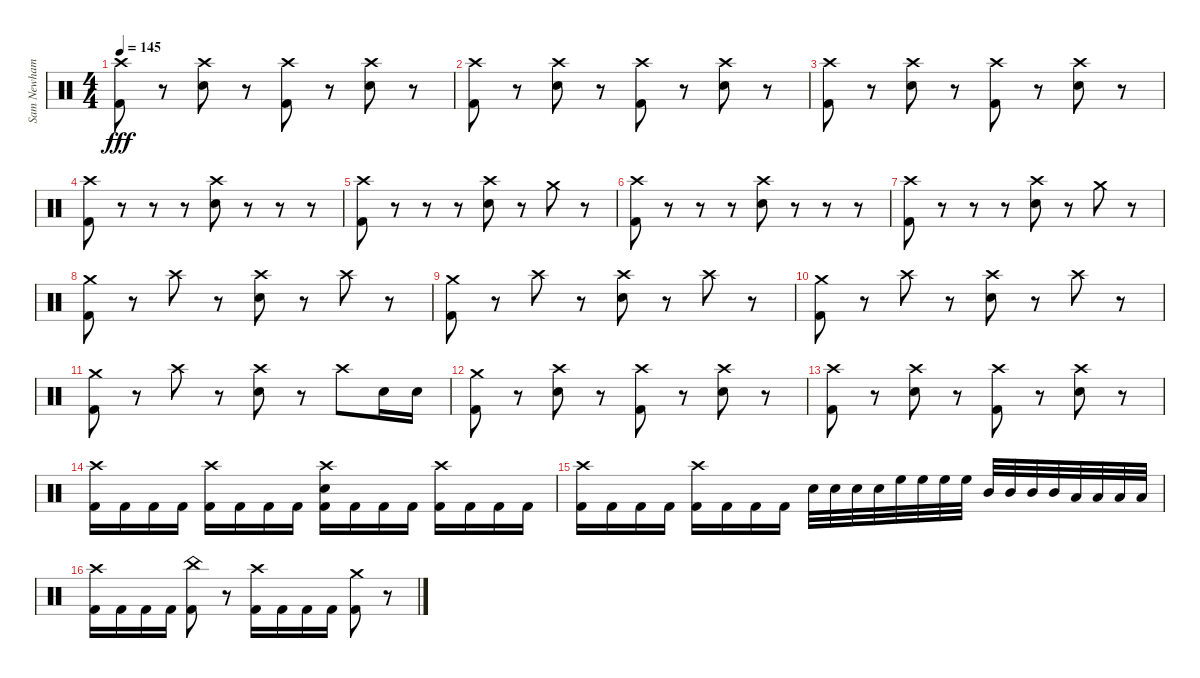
\track ("Sam Newham" "Sam Newham") {instrument percussion}
\staff {score}
\articulation defaults
\ts (4 4)
\tempo 145
\clef neutral
\ks c
("Crash high (hit)" "Kick (hit) 2").8{dy fff} r.8 ("Crash high (hit)" "Electric Snare (hit)").8 r.8 ("Crash high (hit)" "Kick (hit) 2").8 r.8 ("Crash high (hit)" "Electric Snare (hit)").8 r.8 |
("Crash high (hit)" "Kick (hit) 2").8 r.8 ("Crash high (hit)" "Electric Snare (hit)").8 r.8 ("Crash high (hit)" "Kick (hit) 2").8 r.8 ("Crash high (hit)" "Electric Snare (hit)").8 r.8 |
("Crash high (hit)" "Kick (hit) 2").8 r.8 ("Crash high (hit)" "Electric Snare (hit)").8 r.8 ("Crash high (hit)" "Kick (hit) 2").8 r.8 ("Crash high (hit)" "Electric Snare (hit)").8 r.8 |
("Crash high (hit)" "Kick (hit) 2").8 r.8 r.8 r.8 ("Crash high (hit)" "Electric Snare (hit)").8 r.8 r.8 r.8 |
("Crash high (hit)" "Kick (hit) 2").8 r.8 r.8 r.8 ("Crash high (hit)" "Electric Snare (hit)").8 r.8 "Crash medium (hit)".8 r.8 |
("Crash high (hit)" "Kick (hit) 2").8 r.8 r.8 r.8 ("Crash high (hit)" "Electric Snare (hit)").8 r.8 r.8 r.8 |
("Crash high (hit)" "Kick (hit) 2").8 r.8 r.8 r.8 ("Crash high (hit)" "Electric Snare (hit)").8 r.8 "Crash medium (hit)".8 r.8 |
("Crash medium (hit)" "Kick (hit) 2").8 r.8 "Crash high (hit)".8 r.8 ("Crash high (hit)" "Electric Snare (hit)").8 r.8 "Crash high (hit)".8 r.8 |
("Crash medium (hit)" "Kick (hit) 2").8 r.8 "Crash high (hit)".8 r.8 ("Crash high (hit)" "Electric Snare (hit)").8 r.8 "Crash high (hit)".8 r.8 |
("Crash medium (hit)" "Kick (hit) 2").8 r.8 "Crash high (hit)".8 r.8 ("Crash high (hit)" "Electric Snare (hit)").8 r.8 "Crash high (hit)".8 r.8 |
("Crash medium (hit)" "Kick (hit) 2").8 r.8 "Crash high (hit)".8 r.8 ("Crash high (hit)" "Electric Snare (hit)").8 r.8 "Crash high (hit)".8 "Electric Snare (hit)".16 "Electric Snare (hit)".16 |
("Crash medium (hit)" "Kick (hit) 2").8 r.8 ("Crash high (hit)" "Electric Snare (hit)").8 r.8 ("Crash high (hit)" "Kick (hit) 2").8 r.8 ("Crash high (hit)" "Electric Snare (hit)").8 r.8 |
("Crash high (hit)" "Kick (hit) 2").8 r.8 ("Crash high (hit)" "Electric Snare (hit)").8 r.8 ("Crash high (hit)" "Kick (hit) 2").8 r.8 ("Crash high (hit)" "Electric Snare (hit)").8 r.8 |
("Crash high (hit)" "Kick (hit) 2").16 "Kick (hit) 2".16 "Kick (hit) 2".16 "Kick (hit) 2".16 ("Crash high (hit)" "Kick (hit) 2").16 "Kick (hit) 2".16 "Kick (hit) 2".16 "Kick (hit) 2".16 ("Crash high (hit)" "Electric Snare (hit)" "Kick (hit) 2").16 "Kick (hit) 2".16 "Kick (hit) 2".16 "Kick (hit) 2".16 ("Crash high (hit)" "Kick (hit) 2").16 "Kick (hit) 2".16 "Kick (hit) 2".16 "Kick (hit) 2".16 |
("Crash high (hit)" "Kick (hit) 2").16 "Kick (hit) 2".16 "Kick (hit) 2".16 "Kick (hit) 2".16 ("Crash high (hit)" "Kick (hit) 2").16 "Kick (hit) 2".16 "Kick (hit) 2".16 "Kick (hit) 2".16 "Electric Snare (hit)".32 "Electric Snare (hit)".32 "Electric Snare (hit)".32 "Electric Snare (hit)".32 "High Floor Tom (hit)".32 "High Floor Tom (hit)".32 "High Floor Tom (hit)".32 "High Floor Tom (hit)".32 "Mid Tom (hit)".32 "Mid Tom (hit)".32 "Mid Tom (hit)".32 "Mid Tom (hit)".32 "Low Tom (hit)".32 "Low Tom (hit)".32 "Low Tom (hit)".32 "Low Tom (hit)".32 |
("Crash high (hit)" "Kick (hit) 2").16 "Kick (hit) 2".16 "Kick (hit) 2".16 "Kick (hit) 2".16 ("China (hit)" "Kick (hit) 2").8 r.8 ("Crash high (hit)" "Kick (hit) 2").16 "Kick (hit) 2".16 "Kick (hit) 2".16 "Kick (hit) 2".16 ("Crash medium (hit)" "Kick (hit) 2").8 r.8
